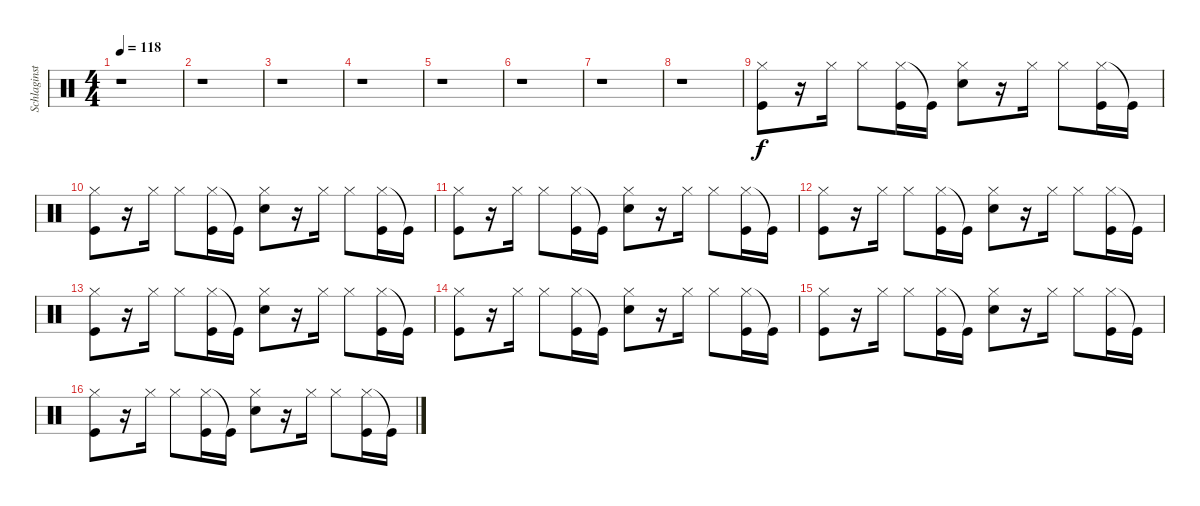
\track ("Schlaginstrumente - Auswahl" "Schlaginst") {instrument percussion}
\staff {score}
\articulation defaults
\ts (4 4)
\tempo 118
\clef neutral
\ks c
r.1{dy f} |
r.1 |
r.1 |
r.1 |
r.1 |
r.1 |
r.1 |
r.1 |
("Hi-Hat (closed)" "Kick (hit)").8 r.16 "Hi-Hat (closed)".16 "Hi-Hat (closed)".8 ("Hi-Hat (closed)" "Kick (hit)").16 "Kick (hit)"{t}.16 ("Hi-Hat (closed)" "Hand Clap (hit)").8 r.16 "Hi-Hat (closed)".16 "Hi-Hat (closed)".8 ("Hi-Hat (closed)" "Kick (hit)").16 "Kick (hit)"{t}.16 |
("Hi-Hat (closed)" "Kick (hit)").8 r.16 "Hi-Hat (closed)".16 "Hi-Hat (closed)".8 ("Hi-Hat (closed)" "Kick (hit)").16 "Kick (hit)"{t}.16 ("Hi-Hat (closed)" "Hand Clap (hit)").8 r.16 "Hi-Hat (closed)".16 "Hi-Hat (closed)".8 ("Hi-Hat (closed)" "Kick (hit)").16 "Kick (hit)"{t}.16 |
("Kick (hit)" "Hi-Hat (closed)").8 r.16 "Hi-Hat (closed)".16 "Hi-Hat (closed)".8 ("Hi-Hat (closed)" "Kick (hit)").16 "Kick (hit)"{t}.16 ("Hi-Hat (closed)" "Hand Clap (hit)").8 r.16 "Hi-Hat (closed)".16 "Hi-Hat (closed)".8 ("Hi-Hat (closed)" "Kick (hit)").16 "Kick (hit)"{t}.16 |
("Hi-Hat (closed)" "Kick (hit)").8 r.16 "Hi-Hat (closed)".16 "Hi-Hat (closed)".8 ("Hi-Hat (closed)" "Kick (hit)").16 "Kick (hit)"{t}.16 ("Hi-Hat (closed)" "Hand Clap (hit)").8 r.16 "Hi-Hat (closed)".16 "Hi-Hat (closed)".8 ("Hi-Hat (closed)" "Kick (hit)").16 "Kick (hit)"{t}.16 |
("Kick (hit)" "Hi-Hat (closed)").8 r.16 "Hi-Hat (closed)".16 "Hi-Hat (closed)".8 ("Hi-Hat (closed)" "Kick (hit)").16 "Kick (hit)"{t}.16 ("Hi-Hat (closed)" "Hand Clap (hit)").8 r.16 "Hi-Hat (closed)".16 "Hi-Hat (closed)".8 ("Hi-Hat (closed)" "Kick (hit)").16 "Kick (hit)"{t}.16 |
("Hi-Hat (closed)" "Kick (hit)").8 r.16 "Hi-Hat (closed)".16 "Hi-Hat (closed)".8 ("Hi-Hat (closed)" "Kick (hit)").16 "Kick (hit)"{t}.16 ("Hi-Hat (closed)" "Hand Clap (hit)").8 r.16 "Hi-Hat (closed)".16 "Hi-Hat (closed)".8 ("Hi-Hat (closed)" "Kick (hit)").16 "Kick (hit)"{t}.16 |
("Kick (hit)" "Hi-Hat (closed)").8 r.16 "Hi-Hat (closed)".16 "Hi-Hat (closed)".8 ("Hi-Hat (closed)" "Kick (hit)").16 "Kick (hit)"{t}.16 ("Hi-Hat (closed)" "Hand Clap (hit)").8 r.16 "Hi-Hat (closed)".16 "Hi-Hat (closed)".8 ("Hi-Hat (closed)" "Kick (hit)").16 "Kick (hit)"{t}.16 |
("Kick (hit)" "Hi-Hat (closed)").8 r.16 "Hi-Hat (closed)".16 "Hi-Hat (closed)".8 ("Hi-Hat (closed)" "Kick (hit)").16 "Kick (hit)"{t}.16 ("Hi-Hat (closed)" "Hand Clap (hit)").8 r.16 "Hi-Hat (closed)".16 "Hi-Hat (closed)".8 ("Hi-Hat (closed)" "Kick (hit)").16 "Kick (hit)"{t}.16
